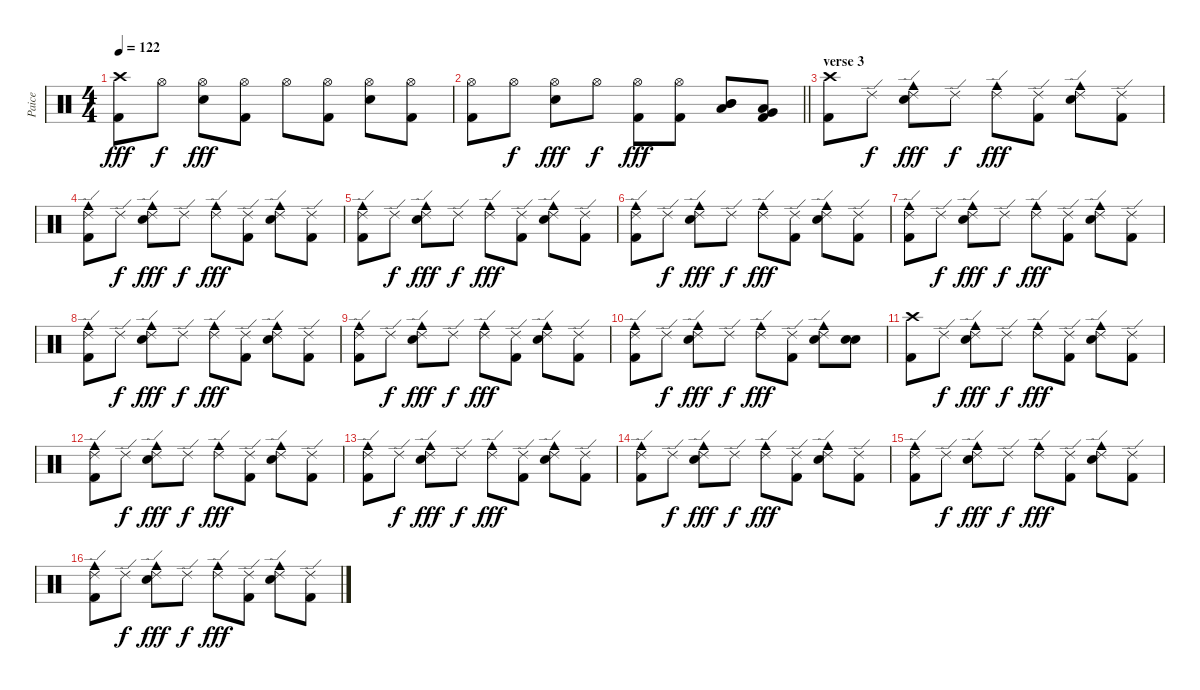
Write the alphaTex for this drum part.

\track ("Paice" "Paice") {instrument percussion}
\staff {score}
\articulation defaults
\ts (4 4)
\tempo 122
\clef neutral
\ks c
("Kick (hit) 2" "Crash high (hit)").8{dy fff} "Hi-Hat (open)".8{dy f} ("Hi-Hat (open)" "Electric Snare (hit)").8{dy fff} ("Hi-Hat (open)" "Kick (hit) 2").8 "Hi-Hat (open)".8 ("Kick (hit) 2" "Hi-Hat (open)").8 ("Electric Snare (hit)" "Hi-Hat (open)").8 ("Hi-Hat (open)" "Kick (hit) 2").8 |
\barLineRight lightlight
("Kick (hit) 2" "Hi-Hat (open)").8 "Hi-Hat (open)".8{dy f} ("Hi-Hat (open)" "Electric Snare (hit)").8{dy fff} "Hi-Hat (open)".8{dy f} ("Hi-Hat (open)" "Kick (hit) 2").8{dy fff} ("Hi-Hat (open)" "Kick (hit) 2").8 ("Mid Tom (hit)" "Mid Tom (hit)" "Low Tom (hit)").8 ("Low Tom (hit)" "Very Low Tom (hit)" "Kick (hit) 2").8 |
\section ("" "verse 3")
("Kick (hit) 2" "Crash high (hit)").8 "Ride (edge) 2".8{dy f} ("Cowbell medium (hit)" "Electric Snare (hit)" "Ride (edge) 2").8{dy fff} "Ride (edge) 2".8{dy f} ("Cowbell medium (hit)" "Ride (edge) 2").8{dy fff} ("Ride (edge) 2" "Kick (hit) 2").8 ("Cowbell medium (hit)" "Electric Snare (hit)" "Ride (edge) 2").8 ("Ride (edge) 2" "Kick (hit) 2").8 |
("Ride (edge) 2" "Kick (hit) 2" "Cowbell medium (hit)").8 "Ride (edge) 2".8{dy f} ("Ride (edge) 2" "Electric Snare (hit)" "Cowbell medium (hit)").8{dy fff} "Ride (edge) 2".8{dy f} ("Ride (edge) 2" "Cowbell medium (hit)").8{dy fff} ("Kick (hit) 2" "Ride (edge) 2").8 ("Electric Snare (hit)" "Cowbell medium (hit)" "Ride (edge) 2").8 ("Ride (edge) 2" "Kick (hit) 2").8 |
("Kick (hit) 2" "Cowbell medium (hit)" "Ride (edge) 2").8 "Ride (edge) 2".8{dy f} ("Ride (edge) 2" "Electric Snare (hit)" "Cowbell medium (hit)").8{dy fff} "Ride (edge) 2".8{dy f} ("Ride (edge) 2" "Cowbell medium (hit)").8{dy fff} ("Kick (hit) 2" "Ride (edge) 2").8 ("Cowbell medium (hit)" "Electric Snare (hit)" "Ride (edge) 2").8 ("Ride (edge) 2" "Kick (hit) 2").8 |
("Kick (hit) 2" "Cowbell medium (hit)" "Ride (edge) 2").8 "Ride (edge) 2".8{dy f} ("Ride (edge) 2" "Cowbell medium (hit)" "Electric Snare (hit)").8{dy fff} "Ride (edge) 2".8{dy f} ("Cowbell medium (hit)" "Ride (edge) 2").8{dy fff} ("Kick (hit) 2" "Ride (edge) 2").8 ("Ride (edge) 2" "Electric Snare (hit)" "Cowbell medium (hit)").8 ("Kick (hit) 2" "Ride (edge) 2").8 |
("Cowbell medium (hit)" "Kick (hit) 2" "Ride (edge) 2").8 "Ride (edge) 2".8{dy f} ("Electric Snare (hit)" "Cowbell medium (hit)" "Ride (edge) 2").8{dy fff} "Ride (edge) 2".8{dy f} ("Ride (edge) 2" "Cowbell medium (hit)").8{dy fff} ("Ride (edge) 2" "Kick (hit) 2").8 ("Electric Snare (hit)" "Ride (edge) 2" "Cowbell medium (hit)").8 ("Ride (edge) 2" "Kick (hit) 2").8 |
("Ride (edge) 2" "Kick (hit) 2" "Cowbell medium (hit)").8 "Ride (edge) 2".8{dy f} ("Ride (edge) 2" "Electric Snare (hit)" "Cowbell medium (hit)").8{dy fff} "Ride (edge) 2".8{dy f} ("Ride (edge) 2" "Cowbell medium (hit)").8{dy fff} ("Ride (edge) 2" "Kick (hit) 2").8 ("Ride (edge) 2" "Cowbell medium (hit)" "Electric Snare (hit)").8 ("Kick (hit) 2" "Ride (edge) 2").8 |
("Cowbell medium (hit)" "Ride (edge) 2" "Kick (hit) 2").8 "Ride (edge) 2".8{dy f} ("Electric Snare (hit)" "Ride (edge) 2" "Cowbell medium (hit)").8{dy fff} "Ride (edge) 2".8{dy f} ("Ride (edge) 2" "Cowbell medium (hit)").8{dy fff} ("Kick (hit) 2" "Ride (edge) 2").8 ("Electric Snare (hit)" "Ride (edge) 2" "Cowbell medium (hit)").8 ("Kick (hit) 2" "Ride (edge) 2").8 |
("Ride (edge) 2" "Cowbell medium (hit)" "Kick (hit) 2").8 "Ride (edge) 2".8{dy f} ("Electric Snare (hit)" "Ride (edge) 2" "Cowbell medium (hit)").8{dy fff} "Ride (edge) 2".8{dy f} ("Cowbell medium (hit)" "Ride (edge) 2").8{dy fff} ("Kick (hit) 2" "Ride (edge) 2").8 ("Ride (edge) 2" "Electric Snare (hit)" "Cowbell medium (hit)").8 ("Electric Snare (hit)" "Electric Snare (hit)").8 |
("Kick (hit) 2" "Crash high (hit)").8 "Ride (edge) 2".8{dy f} ("Ride (edge) 2" "Cowbell medium (hit)" "Electric Snare (hit)").8{dy fff} "Ride (edge) 2".8{dy f} ("Ride (edge) 2" "Cowbell medium (hit)").8{dy fff} ("Ride (edge) 2" "Kick (hit) 2").8 ("Ride (edge) 2" "Cowbell medium (hit)" "Electric Snare (hit)").8 ("Ride (edge) 2" "Kick (hit) 2").8 |
("Ride (edge) 2" "Kick (hit) 2" "Cowbell medium (hit)").8 "Ride (edge) 2".8{dy f} ("Ride (edge) 2" "Electric Snare (hit)" "Cowbell medium (hit)").8{dy fff} "Ride (edge) 2".8{dy f} ("Ride (edge) 2" "Cowbell medium (hit)").8{dy fff} ("Kick (hit) 2" "Ride (edge) 2").8 ("Ride (edge) 2" "Cowbell medium (hit)" "Electric Snare (hit)").8 ("Kick (hit) 2" "Ride (edge) 2").8 |
("Ride (edge) 2" "Kick (hit) 2" "Cowbell medium (hit)").8 "Ride (edge) 2".8{dy f} ("Ride (edge) 2" "Electric Snare (hit)" "Cowbell medium (hit)").8{dy fff} "Ride (edge) 2".8{dy f} ("Ride (edge) 2" "Cowbell medium (hit)").8{dy fff} ("Kick (hit) 2" "Ride (edge) 2").8 ("Ride (edge) 2" "Electric Snare (hit)" "Cowbell medium (hit)").8 ("Ride (edge) 2" "Kick (hit) 2").8 |
("Kick (hit) 2" "Cowbell medium (hit)" "Ride (edge) 2").8 "Ride (edge) 2".8{dy f} ("Ride (edge) 2" "Electric Snare (hit)" "Cowbell medium (hit)").8{dy fff} "Ride (edge) 2".8{dy f} ("Cowbell medium (hit)" "Ride (edge) 2").8{dy fff} ("Ride (edge) 2" "Kick (hit) 2").8 ("Cowbell medium (hit)" "Electric Snare (hit)" "Ride (edge) 2").8 ("Ride (edge) 2" "Kick (hit) 2").8 |
("Ride (edge) 2" "Cowbell medium (hit)" "Kick (hit) 2").8 "Ride (edge) 2".8{dy f} ("Ride (edge) 2" "Cowbell medium (hit)" "Electric Snare (hit)").8{dy fff} "Ride (edge) 2".8{dy f} ("Ride (edge) 2" "Cowbell medium (hit)").8{dy fff} ("Kick (hit) 2" "Ride (edge) 2").8 ("Cowbell medium (hit)" "Electric Snare (hit)" "Ride (edge) 2").8 ("Ride (edge) 2" "Kick (hit) 2").8 |
("Cowbell medium (hit)" "Kick (hit) 2" "Ride (edge) 2").8 "Ride (edge) 2".8{dy f} ("Ride (edge) 2" "Cowbell medium (hit)" "Electric Snare (hit)").8{dy fff} "Ride (edge) 2".8{dy f} ("Cowbell medium (hit)" "Ride (edge) 2").8{dy fff} ("Ride (edge) 2" "Kick (hit) 2").8 ("Electric Snare (hit)" "Cowbell medium (hit)" "Ride (edge) 2").8 ("Ride (edge) 2" "Kick (hit) 2").8
